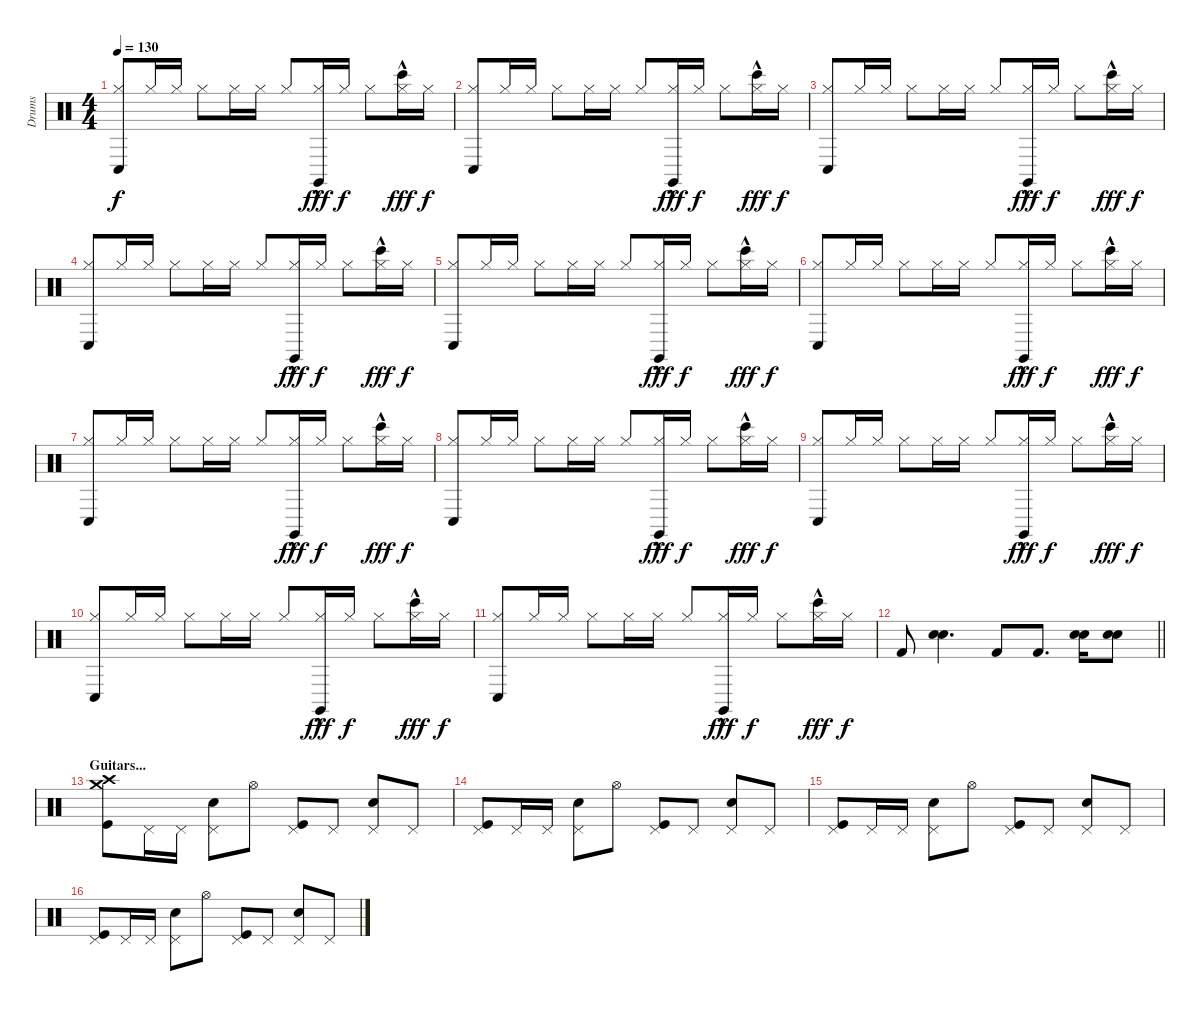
\track ("Drums" "Drums") {instrument percussion}
\staff {score}
\articulation defaults
\ts (4 4)
\tempo 130
\clef neutral
\ks c
("Conga low (hit)" "Hi-Hat (closed)").8{dy f} "Hi-Hat (closed)".16 "Hi-Hat (closed)".16 "Hi-Hat (closed)".8 "Hi-Hat (closed)".16 "Hi-Hat (closed)".16 "Hi-Hat (closed)".8 ("Claves (hit)"{hac} "Hi-Hat (closed)").16{dy fff} "Hi-Hat (closed)".16{dy f} "Hi-Hat (closed)".8 ("Bongo High (hit)"{hac} "Hi-Hat (closed)").16{dy fff} "Hi-Hat (closed)".16{dy f} |
("Conga low (hit)" "Hi-Hat (closed)").8 "Hi-Hat (closed)".16 "Hi-Hat (closed)".16 "Hi-Hat (closed)".8 "Hi-Hat (closed)".16 "Hi-Hat (closed)".16 "Hi-Hat (closed)".8 ("Claves (hit)"{hac} "Hi-Hat (closed)").16{dy fff} "Hi-Hat (closed)".16{dy f} "Hi-Hat (closed)".8 ("Bongo High (hit)"{hac} "Hi-Hat (closed)").16{dy fff} "Hi-Hat (closed)".16{dy f} |
("Conga low (hit)" "Hi-Hat (closed)").8 "Hi-Hat (closed)".16 "Hi-Hat (closed)".16 "Hi-Hat (closed)".8 "Hi-Hat (closed)".16 "Hi-Hat (closed)".16 "Hi-Hat (closed)".8 ("Claves (hit)"{hac} "Hi-Hat (closed)").16{dy fff} "Hi-Hat (closed)".16{dy f} "Hi-Hat (closed)".8 ("Bongo High (hit)"{hac} "Hi-Hat (closed)").16{dy fff} "Hi-Hat (closed)".16{dy f} |
("Conga low (hit)" "Hi-Hat (closed)").8 "Hi-Hat (closed)".16 "Hi-Hat (closed)".16 "Hi-Hat (closed)".8 "Hi-Hat (closed)".16 "Hi-Hat (closed)".16 "Hi-Hat (closed)".8 ("Claves (hit)"{hac} "Hi-Hat (closed)").16{dy fff} "Hi-Hat (closed)".16{dy f} "Hi-Hat (closed)".8 ("Bongo High (hit)"{hac} "Hi-Hat (closed)").16{dy fff} "Hi-Hat (closed)".16{dy f} |
("Conga low (hit)" "Hi-Hat (closed)").8 "Hi-Hat (closed)".16 "Hi-Hat (closed)".16 "Hi-Hat (closed)".8 "Hi-Hat (closed)".16 "Hi-Hat (closed)".16 "Hi-Hat (closed)".8 ("Claves (hit)"{hac} "Hi-Hat (closed)").16{dy fff} "Hi-Hat (closed)".16{dy f} "Hi-Hat (closed)".8 ("Bongo High (hit)"{hac} "Hi-Hat (closed)").16{dy fff} "Hi-Hat (closed)".16{dy f} |
("Conga low (hit)" "Hi-Hat (closed)").8 "Hi-Hat (closed)".16 "Hi-Hat (closed)".16 "Hi-Hat (closed)".8 "Hi-Hat (closed)".16 "Hi-Hat (closed)".16 "Hi-Hat (closed)".8 ("Claves (hit)"{hac} "Hi-Hat (closed)").16{dy fff} "Hi-Hat (closed)".16{dy f} "Hi-Hat (closed)".8 ("Bongo High (hit)"{hac} "Hi-Hat (closed)").16{dy fff} "Hi-Hat (closed)".16{dy f} |
("Conga low (hit)" "Hi-Hat (closed)").8 "Hi-Hat (closed)".16 "Hi-Hat (closed)".16 "Hi-Hat (closed)".8 "Hi-Hat (closed)".16 "Hi-Hat (closed)".16 "Hi-Hat (closed)".8 ("Claves (hit)"{hac} "Hi-Hat (closed)").16{dy fff} "Hi-Hat (closed)".16{dy f} "Hi-Hat (closed)".8 ("Bongo High (hit)"{hac} "Hi-Hat (closed)").16{dy fff} "Hi-Hat (closed)".16{dy f} |
("Conga low (hit)" "Hi-Hat (closed)").8 "Hi-Hat (closed)".16 "Hi-Hat (closed)".16 "Hi-Hat (closed)".8 "Hi-Hat (closed)".16 "Hi-Hat (closed)".16 "Hi-Hat (closed)".8 ("Claves (hit)"{hac} "Hi-Hat (closed)").16{dy fff} "Hi-Hat (closed)".16{dy f} "Hi-Hat (closed)".8 ("Bongo High (hit)"{hac} "Hi-Hat (closed)").16{dy fff} "Hi-Hat (closed)".16{dy f} |
("Conga low (hit)" "Hi-Hat (closed)").8 "Hi-Hat (closed)".16 "Hi-Hat (closed)".16 "Hi-Hat (closed)".8 "Hi-Hat (closed)".16 "Hi-Hat (closed)".16 "Hi-Hat (closed)".8 ("Claves (hit)"{hac} "Hi-Hat (closed)").16{dy fff} "Hi-Hat (closed)".16{dy f} "Hi-Hat (closed)".8 ("Bongo High (hit)"{hac} "Hi-Hat (closed)").16{dy fff} "Hi-Hat (closed)".16{dy f} |
("Conga low (hit)" "Hi-Hat (closed)").8 "Hi-Hat (closed)".16 "Hi-Hat (closed)".16 "Hi-Hat (closed)".8 "Hi-Hat (closed)".16 "Hi-Hat (closed)".16 "Hi-Hat (closed)".8 ("Claves (hit)"{hac} "Hi-Hat (closed)").16{dy fff} "Hi-Hat (closed)".16{dy f} "Hi-Hat (closed)".8 ("Bongo High (hit)"{hac} "Hi-Hat (closed)").16{dy fff} "Hi-Hat (closed)".16{dy f} |
("Conga low (hit)" "Hi-Hat (closed)").8 "Hi-Hat (closed)".16 "Hi-Hat (closed)".16 "Hi-Hat (closed)".8 "Hi-Hat (closed)".16 "Hi-Hat (closed)".16 "Hi-Hat (closed)".8 ("Claves (hit)"{hac} "Hi-Hat (closed)").16{dy fff} "Hi-Hat (closed)".16{dy f} "Hi-Hat (closed)".8 ("Bongo High (hit)"{hac} "Hi-Hat (closed)").16{dy fff} "Hi-Hat (closed)".16{dy f} |
\barLineRight lightlight "Kick (hit) 2".8{volume 10}
("Snare (hit) 2" "Snare (hit) 2").4{d} "Kick (hit) 2".8 "Kick (hit) 2".8{d} ("Snare (hit) 2" "Snare (hit) 2").16 ("Snare (hit) 2" "Snare (hit) 2").8 |
\section ("" "Guitars...")
("Kick (hit)" "Crash medium (hit)" "Crash high (hit)").8 "Pedal Hi-Hat (hit)".16 "Pedal Hi-Hat (hit)".16 ("Pedal Hi-Hat (hit)" "Snare (hit) 2").8 "Hi-Hat (open)".8 ("Pedal Hi-Hat (hit)" "Kick (hit)").8 "Pedal Hi-Hat (hit)".8 ("Pedal Hi-Hat (hit)" "Snare (hit) 2").8 "Pedal Hi-Hat (hit)".8 |
("Pedal Hi-Hat (hit)" "Kick (hit)").8 "Pedal Hi-Hat (hit)".16 "Pedal Hi-Hat (hit)".16 ("Pedal Hi-Hat (hit)" "Snare (hit) 2").8 "Hi-Hat (open)".8 ("Pedal Hi-Hat (hit)" "Kick (hit)").8 "Pedal Hi-Hat (hit)".8 ("Pedal Hi-Hat (hit)" "Snare (hit) 2").8 "Pedal Hi-Hat (hit)".8 |
("Pedal Hi-Hat (hit)" "Kick (hit)").8 "Pedal Hi-Hat (hit)".16 "Pedal Hi-Hat (hit)".16 ("Pedal Hi-Hat (hit)" "Snare (hit) 2").8 "Hi-Hat (open)".8 ("Pedal Hi-Hat (hit)" "Kick (hit)").8 "Pedal Hi-Hat (hit)".8 ("Pedal Hi-Hat (hit)" "Snare (hit) 2").8 "Pedal Hi-Hat (hit)".8 |
("Pedal Hi-Hat (hit)" "Kick (hit)").8 "Pedal Hi-Hat (hit)".16 "Pedal Hi-Hat (hit)".16 ("Pedal Hi-Hat (hit)" "Snare (hit) 2").8 "Hi-Hat (open)".8 ("Pedal Hi-Hat (hit)" "Kick (hit)").8 "Pedal Hi-Hat (hit)".8 ("Pedal Hi-Hat (hit)" "Snare (hit) 2").8 "Pedal Hi-Hat (hit)".8
